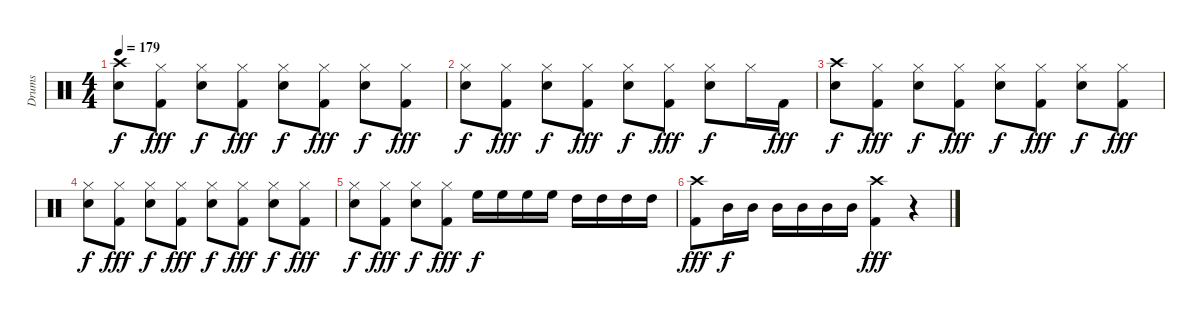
\track ("Drums" "Drums") {instrument percussion}
\staff {score}
\articulation defaults
\ts (4 4)
\tempo 179
\clef neutral
\ks c
("Crash high (hit)" "Electric Snare (hit)").8{dy f} ("Hi-Hat (closed)" "Kick (hit) 2").8{dy fff} ("Hi-Hat (closed)" "Electric Snare (hit)").8{dy f} ("Hi-Hat (closed)" "Kick (hit) 2").8{dy fff} ("Hi-Hat (closed)" "Electric Snare (hit)").8{dy f} ("Hi-Hat (closed)" "Kick (hit) 2").8{dy fff} ("Hi-Hat (closed)" "Electric Snare (hit)").8{dy f} ("Hi-Hat (closed)" "Kick (hit) 2").8{dy fff} |
("Hi-Hat (closed)" "Electric Snare (hit)").8{dy f} ("Hi-Hat (closed)" "Kick (hit) 2").8{dy fff} ("Hi-Hat (closed)" "Electric Snare (hit)").8{dy f} ("Hi-Hat (closed)" "Kick (hit) 2").8{dy fff} ("Hi-Hat (closed)" "Electric Snare (hit)").8{dy f} ("Hi-Hat (closed)" "Kick (hit) 2").8{dy fff} ("Hi-Hat (closed)" "Electric Snare (hit)").8{dy f} "Hi-Hat (closed)".16 "Kick (hit) 2".16{dy fff} |
("Crash high (hit)" "Electric Snare (hit)").8{dy f} ("Hi-Hat (closed)" "Kick (hit) 2").8{dy fff} ("Hi-Hat (closed)" "Electric Snare (hit)").8{dy f} ("Hi-Hat (closed)" "Kick (hit) 2").8{dy fff} ("Hi-Hat (closed)" "Electric Snare (hit)").8{dy f} ("Hi-Hat (closed)" "Kick (hit) 2").8{dy fff} ("Hi-Hat (closed)" "Electric Snare (hit)").8{dy f} ("Hi-Hat (closed)" "Kick (hit) 2").8{dy fff} |
("Hi-Hat (closed)" "Electric Snare (hit)").8{dy f} ("Hi-Hat (closed)" "Kick (hit) 2").8{dy fff} ("Hi-Hat (closed)" "Electric Snare (hit)").8{dy f} ("Hi-Hat (closed)" "Kick (hit) 2").8{dy fff} ("Hi-Hat (closed)" "Electric Snare (hit)").8{dy f} ("Hi-Hat (closed)" "Kick (hit) 2").8{dy fff} ("Hi-Hat (closed)" "Electric Snare (hit)").8{dy f} ("Hi-Hat (closed)" "Kick (hit) 2").8{dy fff} |
("Hi-Hat (closed)" "Electric Snare (hit)").8{dy f} ("Hi-Hat (closed)" "Kick (hit) 2").8{dy fff} ("Hi-Hat (closed)" "Electric Snare (hit)").8{dy f} ("Hi-Hat (closed)" "Kick (hit) 2").8{dy fff} "High Floor Tom (hit)".16{dy f} "High Floor Tom (hit)".16 "High Floor Tom (hit)".16 "High Floor Tom (hit)".16 "High Tom (hit)".16 "High Tom (hit)".16 "High Tom (hit)".16 "High Tom (hit)".16 |
("Crash high (hit)" "Kick (hit) 2").8{dy fff} "Mid Tom (hit)".16{dy f} "Mid Tom (hit)".16 "Mid Tom (hit)".16 "Mid Tom (hit)".16 "Mid Tom (hit)".16 "Mid Tom (hit)".16 ("Crash high (hit)" "Kick (hit) 2").4{dy fff} r.4
